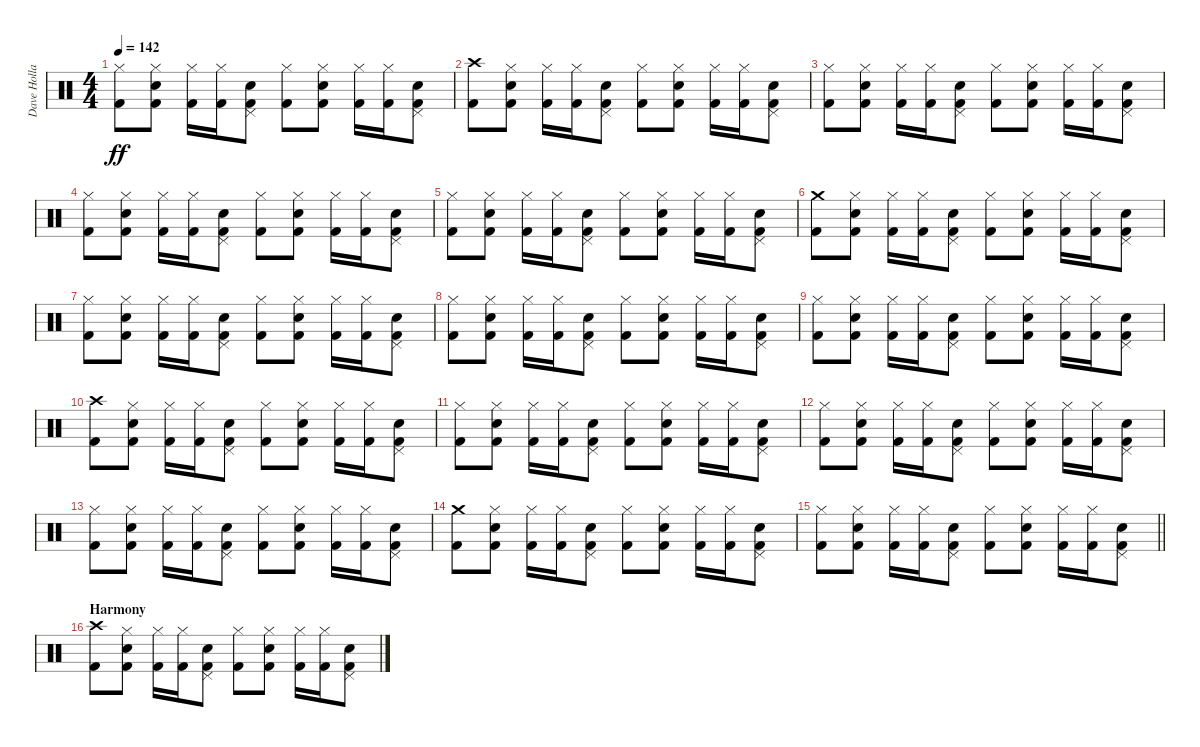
\track ("Dave Holland" "Dave Holla") {instrument percussion}
\staff {score}
\articulation defaults
\ts (4 4)
\tempo 142
\clef neutral
\ks c
("Hi-Hat (closed)" "Kick (hit) 2").8{dy ff} ("Hi-Hat (closed)" "Snare (hit) 2" "Kick (hit) 2").8 ("Hi-Hat (closed)" "Kick (hit) 2").16 ("Hi-Hat (closed)" "Kick (hit) 2").16 ("Pedal Hi-Hat (hit)" "Snare (hit) 2" "Kick (hit) 2").8 ("Hi-Hat (closed)" "Kick (hit) 2").8 ("Hi-Hat (closed)" "Snare (hit) 2" "Kick (hit) 2").8 ("Hi-Hat (closed)" "Kick (hit) 2").16 ("Hi-Hat (closed)" "Kick (hit) 2").16 ("Pedal Hi-Hat (hit)" "Snare (hit) 2" "Kick (hit) 2").8 |
("Crash high (hit)" "Kick (hit) 2").8 ("Hi-Hat (closed)" "Snare (hit) 2" "Kick (hit) 2").8 ("Hi-Hat (closed)" "Kick (hit) 2").16 ("Hi-Hat (closed)" "Kick (hit) 2").16 ("Pedal Hi-Hat (hit)" "Snare (hit) 2" "Kick (hit) 2").8 ("Hi-Hat (closed)" "Kick (hit) 2").8 ("Hi-Hat (closed)" "Snare (hit) 2" "Kick (hit) 2").8 ("Hi-Hat (closed)" "Kick (hit) 2").16 ("Hi-Hat (closed)" "Kick (hit) 2").16 ("Pedal Hi-Hat (hit)" "Snare (hit) 2" "Kick (hit) 2").8 |
("Hi-Hat (closed)" "Kick (hit) 2").8 ("Hi-Hat (closed)" "Snare (hit) 2" "Kick (hit) 2").8 ("Hi-Hat (closed)" "Kick (hit) 2").16 ("Hi-Hat (closed)" "Kick (hit) 2").16 ("Pedal Hi-Hat (hit)" "Snare (hit) 2" "Kick (hit) 2").8 ("Hi-Hat (closed)" "Kick (hit) 2").8 ("Hi-Hat (closed)" "Snare (hit) 2" "Kick (hit) 2").8 ("Hi-Hat (closed)" "Kick (hit) 2").16 ("Hi-Hat (closed)" "Kick (hit) 2").16 ("Pedal Hi-Hat (hit)" "Snare (hit) 2" "Kick (hit) 2").8 |
("Hi-Hat (closed)" "Kick (hit) 2").8 ("Hi-Hat (closed)" "Snare (hit) 2" "Kick (hit) 2").8 ("Hi-Hat (closed)" "Kick (hit) 2").16 ("Hi-Hat (closed)" "Kick (hit) 2").16 ("Pedal Hi-Hat (hit)" "Snare (hit) 2" "Kick (hit) 2").8 ("Hi-Hat (closed)" "Kick (hit) 2").8 ("Hi-Hat (closed)" "Snare (hit) 2" "Kick (hit) 2").8 ("Hi-Hat (closed)" "Kick (hit) 2").16 ("Hi-Hat (closed)" "Kick (hit) 2").16 ("Pedal Hi-Hat (hit)" "Snare (hit) 2" "Kick (hit) 2").8 |
("Hi-Hat (closed)" "Kick (hit) 2").8 ("Hi-Hat (closed)" "Snare (hit) 2" "Kick (hit) 2").8 ("Hi-Hat (closed)" "Kick (hit) 2").16 ("Hi-Hat (closed)" "Kick (hit) 2").16 ("Pedal Hi-Hat (hit)" "Snare (hit) 2" "Kick (hit) 2").8 ("Hi-Hat (closed)" "Kick (hit) 2").8 ("Hi-Hat (closed)" "Snare (hit) 2" "Kick (hit) 2").8 ("Hi-Hat (closed)" "Kick (hit) 2").16 ("Hi-Hat (closed)" "Kick (hit) 2").16 ("Pedal Hi-Hat (hit)" "Snare (hit) 2" "Kick (hit) 2").8 |
("Crash medium (hit)" "Kick (hit) 2").8 ("Hi-Hat (closed)" "Snare (hit) 2" "Kick (hit) 2").8 ("Hi-Hat (closed)" "Kick (hit) 2").16 ("Hi-Hat (closed)" "Kick (hit) 2").16 ("Pedal Hi-Hat (hit)" "Snare (hit) 2" "Kick (hit) 2").8 ("Hi-Hat (closed)" "Kick (hit) 2").8 ("Hi-Hat (closed)" "Snare (hit) 2" "Kick (hit) 2").8 ("Hi-Hat (closed)" "Kick (hit) 2").16 ("Hi-Hat (closed)" "Kick (hit) 2").16 ("Pedal Hi-Hat (hit)" "Snare (hit) 2" "Kick (hit) 2").8 |
("Hi-Hat (closed)" "Kick (hit) 2").8 ("Hi-Hat (closed)" "Snare (hit) 2" "Kick (hit) 2").8 ("Hi-Hat (closed)" "Kick (hit) 2").16 ("Hi-Hat (closed)" "Kick (hit) 2").16 ("Pedal Hi-Hat (hit)" "Snare (hit) 2" "Kick (hit) 2").8 ("Hi-Hat (closed)" "Kick (hit) 2").8 ("Hi-Hat (closed)" "Snare (hit) 2" "Kick (hit) 2").8 ("Hi-Hat (closed)" "Kick (hit) 2").16 ("Hi-Hat (closed)" "Kick (hit) 2").16 ("Pedal Hi-Hat (hit)" "Snare (hit) 2" "Kick (hit) 2").8 |
("Hi-Hat (closed)" "Kick (hit) 2").8 ("Hi-Hat (closed)" "Snare (hit) 2" "Kick (hit) 2").8 ("Hi-Hat (closed)" "Kick (hit) 2").16 ("Hi-Hat (closed)" "Kick (hit) 2").16 ("Pedal Hi-Hat (hit)" "Snare (hit) 2" "Kick (hit) 2").8 ("Hi-Hat (closed)" "Kick (hit) 2").8 ("Hi-Hat (closed)" "Snare (hit) 2" "Kick (hit) 2").8 ("Hi-Hat (closed)" "Kick (hit) 2").16 ("Hi-Hat (closed)" "Kick (hit) 2").16 ("Pedal Hi-Hat (hit)" "Snare (hit) 2" "Kick (hit) 2").8 |
("Hi-Hat (closed)" "Kick (hit) 2").8 ("Hi-Hat (closed)" "Snare (hit) 2" "Kick (hit) 2").8 ("Hi-Hat (closed)" "Kick (hit) 2").16 ("Hi-Hat (closed)" "Kick (hit) 2").16 ("Pedal Hi-Hat (hit)" "Snare (hit) 2" "Kick (hit) 2").8 ("Hi-Hat (closed)" "Kick (hit) 2").8 ("Hi-Hat (closed)" "Snare (hit) 2" "Kick (hit) 2").8 ("Hi-Hat (closed)" "Kick (hit) 2").16 ("Hi-Hat (closed)" "Kick (hit) 2").16 ("Pedal Hi-Hat (hit)" "Snare (hit) 2" "Kick (hit) 2").8 |
("Crash high (hit)" "Kick (hit) 2").8 ("Hi-Hat (closed)" "Snare (hit) 2" "Kick (hit) 2").8 ("Hi-Hat (closed)" "Kick (hit) 2").16 ("Hi-Hat (closed)" "Kick (hit) 2").16 ("Pedal Hi-Hat (hit)" "Snare (hit) 2" "Kick (hit) 2").8 ("Hi-Hat (closed)" "Kick (hit) 2").8 ("Hi-Hat (closed)" "Snare (hit) 2" "Kick (hit) 2").8 ("Hi-Hat (closed)" "Kick (hit) 2").16 ("Hi-Hat (closed)" "Kick (hit) 2").16 ("Pedal Hi-Hat (hit)" "Snare (hit) 2" "Kick (hit) 2").8 |
("Hi-Hat (closed)" "Kick (hit) 2").8 ("Hi-Hat (closed)" "Snare (hit) 2" "Kick (hit) 2").8 ("Hi-Hat (closed)" "Kick (hit) 2").16 ("Hi-Hat (closed)" "Kick (hit) 2").16 ("Pedal Hi-Hat (hit)" "Snare (hit) 2" "Kick (hit) 2").8 ("Hi-Hat (closed)" "Kick (hit) 2").8 ("Hi-Hat (closed)" "Snare (hit) 2" "Kick (hit) 2").8 ("Hi-Hat (closed)" "Kick (hit) 2").16 ("Hi-Hat (closed)" "Kick (hit) 2").16 ("Pedal Hi-Hat (hit)" "Snare (hit) 2" "Kick (hit) 2").8 |
("Hi-Hat (closed)" "Kick (hit) 2").8 ("Hi-Hat (closed)" "Snare (hit) 2" "Kick (hit) 2").8 ("Hi-Hat (closed)" "Kick (hit) 2").16 ("Hi-Hat (closed)" "Kick (hit) 2").16 ("Pedal Hi-Hat (hit)" "Snare (hit) 2" "Kick (hit) 2").8 ("Hi-Hat (closed)" "Kick (hit) 2").8 ("Hi-Hat (closed)" "Snare (hit) 2" "Kick (hit) 2").8 ("Hi-Hat (closed)" "Kick (hit) 2").16 ("Hi-Hat (closed)" "Kick (hit) 2").16 ("Pedal Hi-Hat (hit)" "Snare (hit) 2" "Kick (hit) 2").8 |
("Hi-Hat (closed)" "Kick (hit) 2").8 ("Hi-Hat (closed)" "Snare (hit) 2" "Kick (hit) 2").8 ("Hi-Hat (closed)" "Kick (hit) 2").16 ("Hi-Hat (closed)" "Kick (hit) 2").16 ("Pedal Hi-Hat (hit)" "Snare (hit) 2" "Kick (hit) 2").8 ("Hi-Hat (closed)" "Kick (hit) 2").8 ("Hi-Hat (closed)" "Snare (hit) 2" "Kick (hit) 2").8 ("Hi-Hat (closed)" "Kick (hit) 2").16 ("Hi-Hat (closed)" "Kick (hit) 2").16 ("Pedal Hi-Hat (hit)" "Snare (hit) 2" "Kick (hit) 2").8 |
("Crash medium (hit)" "Kick (hit) 2").8 ("Hi-Hat (closed)" "Snare (hit) 2" "Kick (hit) 2").8 ("Hi-Hat (closed)" "Kick (hit) 2").16 ("Hi-Hat (closed)" "Kick (hit) 2").16 ("Pedal Hi-Hat (hit)" "Snare (hit) 2" "Kick (hit) 2").8 ("Hi-Hat (closed)" "Kick (hit) 2").8 ("Hi-Hat (closed)" "Snare (hit) 2" "Kick (hit) 2").8 ("Hi-Hat (closed)" "Kick (hit) 2").16 ("Hi-Hat (closed)" "Kick (hit) 2").16 ("Pedal Hi-Hat (hit)" "Snare (hit) 2" "Kick (hit) 2").8 |
\barLineRight lightlight
("Hi-Hat (closed)" "Kick (hit) 2").8 ("Hi-Hat (closed)" "Snare (hit) 2" "Kick (hit) 2").8 ("Hi-Hat (closed)" "Kick (hit) 2").16 ("Hi-Hat (closed)" "Kick (hit) 2").16 ("Pedal Hi-Hat (hit)" "Snare (hit) 2" "Kick (hit) 2").8 ("Hi-Hat (closed)" "Kick (hit) 2").8 ("Hi-Hat (closed)" "Snare (hit) 2" "Kick (hit) 2").8 ("Hi-Hat (closed)" "Kick (hit) 2").16 ("Hi-Hat (closed)" "Kick (hit) 2").16 ("Pedal Hi-Hat (hit)" "Snare (hit) 2" "Kick (hit) 2").8 |
\section ("" "Harmony")
("Crash high (hit)" "Kick (hit) 2").8 ("Hi-Hat (closed)" "Snare (hit) 2" "Kick (hit) 2").8 ("Hi-Hat (closed)" "Kick (hit) 2").16 ("Hi-Hat (closed)" "Kick (hit) 2").16 ("Pedal Hi-Hat (hit)" "Snare (hit) 2" "Kick (hit) 2").8 ("Hi-Hat (closed)" "Kick (hit) 2").8 ("Hi-Hat (closed)" "Snare (hit) 2" "Kick (hit) 2").8 ("Hi-Hat (closed)" "Kick (hit) 2").16 ("Hi-Hat (closed)" "Kick (hit) 2").16 ("Pedal Hi-Hat (hit)" "Snare (hit) 2" "Kick (hit) 2").8
